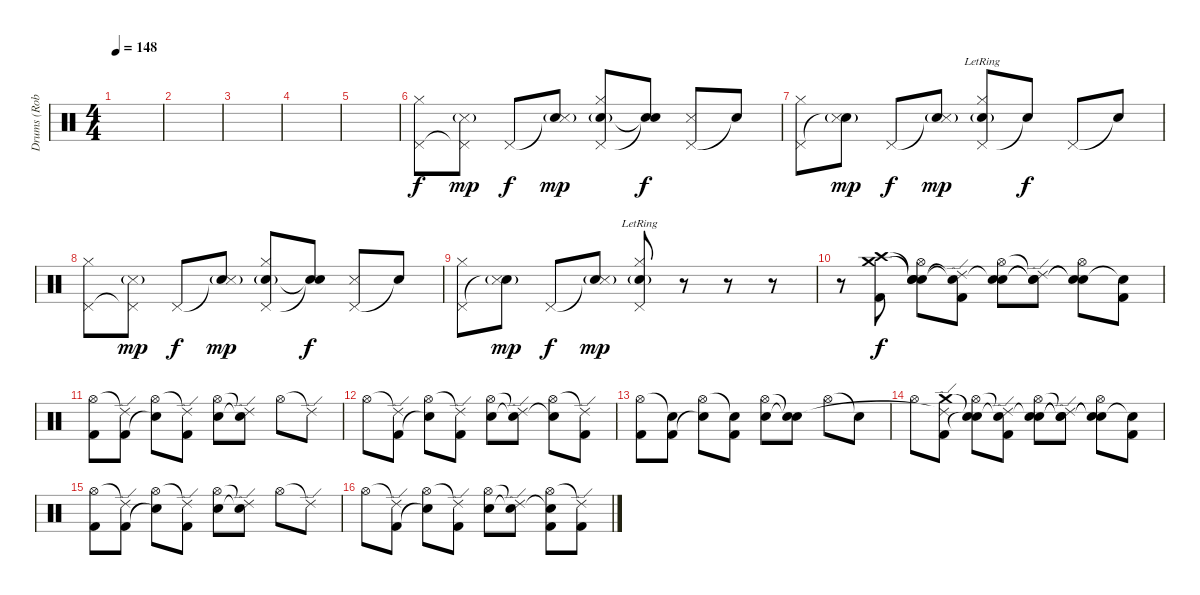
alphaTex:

\track ("Drums (Rob Bourdon)" "Drums (Rob") {instrument percussion}
\staff {score}
\articulation defaults
\ts (4 4)
\tempo 148
\clef neutral
\ks c
|
|
|
|
|
("Pedal Hi-Hat (hit)" "Hi-Hat (closed)").8{volume 10} ("Pedal Hi-Hat (hit)"{t} "Metronome (hit)"{g}).8{dy mp} "Pedal Hi-Hat (hit)".8{dy f} ("Snare (hit)"{t} "Metronome (hit)"{g}).8{dy mp} ("Pedal Hi-Hat (hit)" "Metronome (bell)"{g} "Hi-Hat (closed)").8 ("Snare (hit)"{t} "Snare (hit)"{t}).8{dy f} ("Pedal Hi-Hat (hit)" "Metronome (hit)").8 "Snare (hit)"{t}.8 |
("Pedal Hi-Hat (hit)" "Hi-Hat (closed)").8 ("Snare (hit)"{t} "Metronome (hit)"{g}).8{dy mp} "Pedal Hi-Hat (hit)".8{dy f} ("Snare (hit)"{t} "Metronome (hit)"{g}).8{dy mp} ("Pedal Hi-Hat (hit)" "Metronome (bell)"{g lr} "Hi-Hat (closed)").8 "Snare (hit)"{t}.8{dy f} "Pedal Hi-Hat (hit)".8 "Snare (hit)"{t}.8 |
("Pedal Hi-Hat (hit)" "Hi-Hat (closed)").8{volume 10} ("Pedal Hi-Hat (hit)"{t} "Metronome (hit)"{g}).8{dy mp} "Pedal Hi-Hat (hit)".8{dy f} ("Snare (hit)"{t} "Metronome (hit)"{g}).8{dy mp} ("Pedal Hi-Hat (hit)" "Metronome (bell)"{g} "Hi-Hat (closed)").8 ("Snare (hit)"{t} "Snare (hit)"{t}).8{dy f} ("Pedal Hi-Hat (hit)" "Metronome (hit)").8 "Snare (hit)"{t}.8 |
("Pedal Hi-Hat (hit)" "Hi-Hat (closed)").8 ("Snare (hit)"{t} "Metronome (hit)"{g}).8{dy mp} "Pedal Hi-Hat (hit)".8{dy f} ("Snare (hit)"{t} "Metronome (hit)"{g}).8{dy mp} ("Pedal Hi-Hat (hit)" "Metronome (bell)"{g lr} "Hi-Hat (closed)").8 r.8 r.8 r.8 |
r.8 ("Crash medium (hit)" "Crash high (hit)" "Kick (hit) 2").8{dy f} ("Snare (hit)"{t} "Snare (hit)"{t} "Hi-Hat (open)" "Snare (hit)").8 ("Snare (hit)"{t} "Ride (edge) 2"{t} "Kick (hit) 2").8 ("Snare (hit)"{t} "Hi-Hat (open)" "Electric Snare (hit)").8 ("Snare (hit)"{t} "Ride (edge) 2"{t} "Snare (hit)"{t}).8 ("Snare (hit)"{t} "Hi-Hat (open)" "Snare (hit)"{t}).8 ("Snare (hit)"{t} "Kick (hit) 2").8 |
("Hi-Hat (open)" "Kick (hit) 2").8 ("Ride (edge) 2"{t} "Kick (hit) 2").8 ("Hi-Hat (open)" "Snare (hit)"{t}).8 ("Ride (edge) 2"{t} "Kick (hit) 2").8 ("Hi-Hat (open)" "Electric Snare (hit)").8 ("Ride (edge) 2"{t} "Snare (hit)"{t}).8 "Hi-Hat (open)".8 "Ride (edge) 2"{t}.8 |
"Hi-Hat (open)".8 ("Ride (edge) 2"{t} "Kick (hit) 2").8 ("Hi-Hat (open)" "Snare (hit)"{t}).8 ("Ride (edge) 2"{t} "Kick (hit) 2").8 ("Hi-Hat (open)" "Electric Snare (hit)").8 ("Ride (edge) 2"{t} "Snare (hit)"{t}).8 ("Hi-Hat (open)" "Snare (hit)"{t}).8 ("Ride (edge) 2"{t} "Kick (hit) 2").8 |
("Hi-Hat (open)" "Kick (hit) 2").8 ("Snare (hit)"{t} "Kick (hit) 2").8 ("Hi-Hat (open)" "Snare (hit)"{t}).8 ("Snare (hit)"{t} "Kick (hit) 2").8 ("Hi-Hat (open)" "Electric Snare (hit)").8 ("Snare (hit)"{t} "Snare (hit)"{t}).8 "Hi-Hat (open)".8 "Snare (hit)"{t}.8 |
"Hi-Hat (open)".8 ("Crash medium (hit)" "Ride (edge) 2"{t} "Kick (hit) 2").8 ("Snare (hit)"{t} "Hi-Hat (open)" "Snare (hit)"{t}).8 ("Snare (hit)"{t} "Ride (edge) 2"{t} "Kick (hit) 2").8 ("Snare (hit)"{t} "Hi-Hat (open)" "Electric Snare (hit)").8 ("Snare (hit)"{t} "Ride (edge) 2"{t} "Snare (hit)"{t}).8 ("Snare (hit)"{t} "Hi-Hat (open)" "Snare (hit)"{t}).8 ("Snare (hit)"{t} "Kick (hit) 2").8 |
("Hi-Hat (open)" "Kick (hit) 2").8 ("Ride (edge) 2"{t} "Kick (hit) 2").8 ("Hi-Hat (open)" "Snare (hit)"{t}).8 ("Ride (edge) 2"{t} "Kick (hit) 2").8 ("Hi-Hat (open)" "Electric Snare (hit)").8 ("Ride (edge) 2"{t} "Snare (hit)"{t}).8 "Hi-Hat (open)".8 "Ride (edge) 2"{t}.8 |
"Hi-Hat (open)".8 ("Ride (edge) 2"{t} "Kick (hit) 2").8 ("Hi-Hat (open)" "Snare (hit)"{t}).8 ("Ride (edge) 2"{t} "Kick (hit) 2").8 ("Hi-Hat (open)" "Electric Snare (hit)").8 ("Ride (edge) 2"{t} "Snare (hit)"{t}).8 ("Hi-Hat (open)" "Snare (hit)"{t} "Kick (hit) 2").8 ("Ride (edge) 2"{t} "Kick (hit) 2").8
